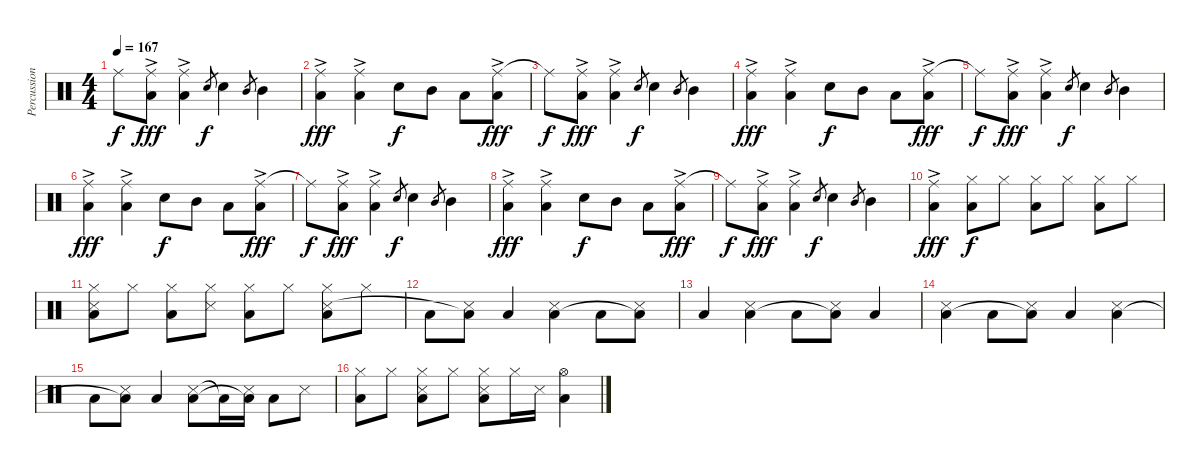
\track ("Percussion" "Percussion") {instrument percussion}
\staff {score}
\articulation defaults
\ts (4 4)
\tempo 167
\clef neutral
\ks c "Ride (middle)"{t}.8{dy f}
("Ride (middle)"{ac} "Low Floor Tom (hit)").8{dy fff} ("Ride (middle)"{ac} "Low Floor Tom (hit)").4 "Snare (hit) 2".8{gr dy f} "Snare (hit) 2".4 "Mid Tom (hit)".8{gr} "Mid Tom (hit)".4 |
("Ride (middle)"{ac} "Low Floor Tom (hit)").4{dy fff} ("Ride (middle)"{ac} "Low Floor Tom (hit)").4 "Snare (hit) 2".8{dy f} "Mid Tom (hit)".8 "Low Tom (hit)".8 ("Ride (middle)"{ac} "Low Floor Tom (hit)").8{dy fff} |
"Ride (middle)"{t}.8{dy f} ("Ride (middle)"{ac} "Low Floor Tom (hit)").8{dy fff} ("Ride (middle)"{ac} "Low Floor Tom (hit)").4 "Snare (hit) 2".8{gr dy f} "Snare (hit) 2".4 "Mid Tom (hit)".8{gr} "Mid Tom (hit)".4 |
("Ride (middle)"{ac} "Low Floor Tom (hit)").4{dy fff} ("Ride (middle)"{ac} "Low Floor Tom (hit)").4 "Snare (hit) 2".8{dy f} "Mid Tom (hit)".8 "Low Tom (hit)".8 ("Ride (middle)"{ac} "Low Floor Tom (hit)").8{dy fff} |
"Ride (middle)"{t}.8{dy f} ("Ride (middle)"{ac} "Low Floor Tom (hit)").8{dy fff} ("Ride (middle)"{ac} "Low Floor Tom (hit)").4 "Snare (hit) 2".8{gr dy f} "Snare (hit) 2".4 "Mid Tom (hit)".8{gr} "Mid Tom (hit)".4 |
("Ride (middle)"{ac} "Low Floor Tom (hit)").4{dy fff} ("Ride (middle)"{ac} "Low Floor Tom (hit)").4 "Snare (hit) 2".8{dy f} "Mid Tom (hit)".8 "Low Tom (hit)".8 ("Ride (middle)"{ac} "Low Floor Tom (hit)").8{dy fff} |
"Ride (middle)"{t}.8{dy f} ("Ride (middle)"{ac} "Low Floor Tom (hit)").8{dy fff} ("Ride (middle)"{ac} "Low Floor Tom (hit)").4 "Snare (hit) 2".8{gr dy f} "Snare (hit) 2".4 "Mid Tom (hit)".8{gr} "Mid Tom (hit)".4 |
("Ride (middle)"{ac} "Low Floor Tom (hit)").4{dy fff} ("Ride (middle)"{ac} "Low Floor Tom (hit)").4 "Snare (hit) 2".8{dy f} "Mid Tom (hit)".8 "Low Tom (hit)".8 ("Ride (middle)"{ac} "Low Floor Tom (hit)").8{dy fff} |
"Ride (middle)"{t}.8{dy f} ("Ride (middle)"{ac} "Low Floor Tom (hit)").8{dy fff} ("Ride (middle)"{ac} "Low Floor Tom (hit)").4 "Snare (hit) 2".8{gr dy f} "Snare (hit) 2".4 "Mid Tom (hit)".8{gr} "Mid Tom (hit)".4 |
("Ride (middle)"{ac} "Low Floor Tom (hit)").4{dy fff} ("Hi-Hat (closed)" "Low Floor Tom (hit)").8{dy f} "Hi-Hat (closed)".8 ("Hi-Hat (closed)" "Low Floor Tom (hit)").8 "Hi-Hat (closed)".8 ("Hi-Hat (closed)" "Low Floor Tom (hit)").8 "Hi-Hat (closed)".8 |
("Hi-Hat (closed)" "Snare (side stick) 3" "Low Floor Tom (hit)").8 "Hi-Hat (closed)".8 ("Hi-Hat (closed)" "Low Floor Tom (hit)").8 ("Hi-Hat (closed)" "Snare (side stick) 3").8 ("Hi-Hat (closed)" "Low Floor Tom (hit)").8 "Hi-Hat (closed)".8 ("Hi-Hat (closed)" "Snare (side stick) 3" "Low Floor Tom (hit)").8 "Hi-Hat (closed)".8 |
"Low Floor Tom (hit)".8 ("Snare (side stick) 3" "Low Floor Tom (hit)"{t}).8 "Low Floor Tom (hit)".4 ("Snare (side stick) 3" "Low Floor Tom (hit)").4 "Low Floor Tom (hit)".8 ("Snare (side stick) 3" "Low Floor Tom (hit)"{t}).8 |
"Low Floor Tom (hit)".4 ("Snare (side stick) 3" "Low Floor Tom (hit)").4 "Low Floor Tom (hit)".8 ("Snare (side stick) 3" "Low Floor Tom (hit)"{t}).8 "Low Floor Tom (hit)".4 |
("Snare (side stick) 3" "Low Floor Tom (hit)").4 "Low Floor Tom (hit)".8 ("Snare (side stick) 3" "Low Floor Tom (hit)"{t}).8 "Low Floor Tom (hit)".4 ("Snare (side stick) 3" "Low Floor Tom (hit)").4 |
"Low Floor Tom (hit)".8 ("Snare (side stick) 3" "Low Floor Tom (hit)"{t}).8 "Low Floor Tom (hit)".4 ("Snare (side stick) 3" "Low Floor Tom (hit)").8 "Low Floor Tom (hit)"{t}.16 ("Snare (side stick) 3" "Low Floor Tom (hit)"{t}).16 "Low Floor Tom (hit)".8 "Snare (side stick) 3".8 |
("Hi-Hat (closed)" "Low Floor Tom (hit)").8 "Hi-Hat (closed)".8 ("Hi-Hat (closed)" "Snare (side stick) 3" "Low Floor Tom (hit)").8 "Hi-Hat (closed)".8 ("Hi-Hat (closed)" "Snare (side stick) 3" "Low Floor Tom (hit)").8 "Hi-Hat (closed)".16 "Snare (side stick) 3".16 ("Hi-Hat (open)" "Low Floor Tom (hit)").4
